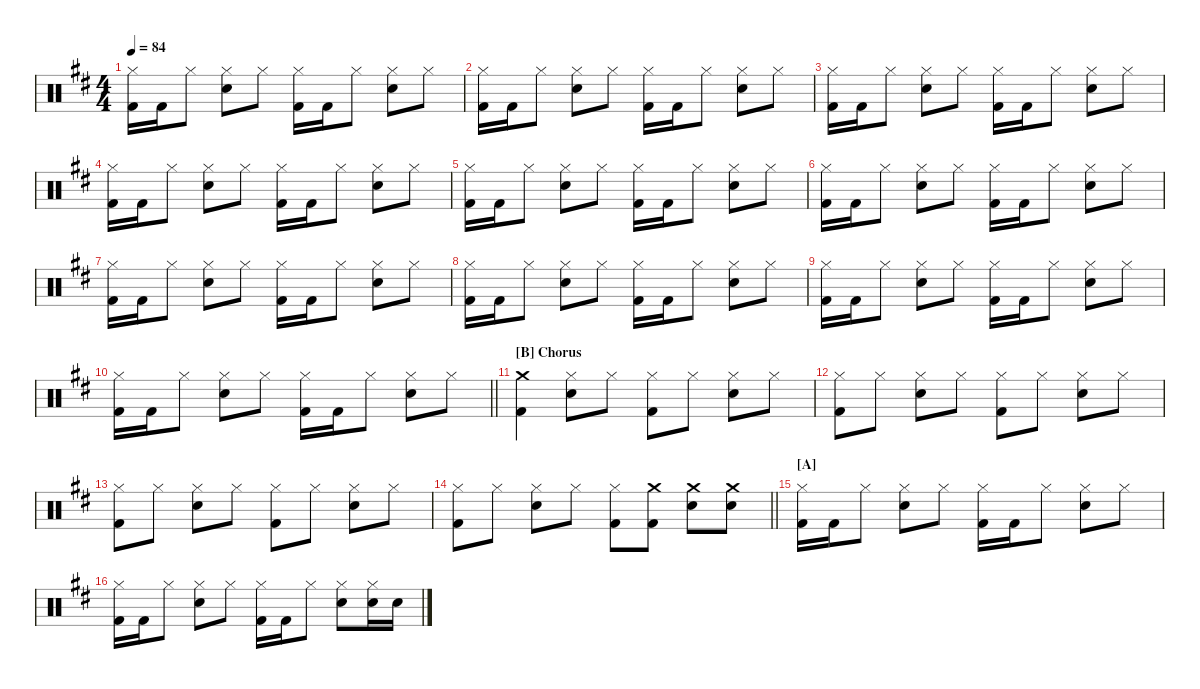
\hideDynamics
\bracketExtendMode nobrackets
\singleTrackTrackNamePolicy hidden
\multiTrackTrackNamePolicy hidden
\otherSystemsTrackNameOrientation horizontal
\track ("Drumkit" "Drums") {instrument percussion}
\staff {score}
\articulation defaults
\ts (4 4)
\tempo 84
\clef neutral
\ks d
("Kick (hit) 2"{acc forcenatural} "Hi-Hat (closed)"{acc forcenatural}).16{dy f beam Down} "Kick (hit) 2"{acc forcenatural}.16{beam Down} "Hi-Hat (closed)"{acc forcenatural}.8{beam Down} ("Snare (hit) 2"{acc forcenatural} "Hi-Hat (closed)"{acc forcenatural}).8{beam Down} "Hi-Hat (closed)"{acc forcenatural}.8{beam Down} ("Kick (hit) 2"{acc forcenatural} "Hi-Hat (closed)"{acc forcenatural}).16{beam Down} "Kick (hit) 2"{acc forcenatural}.16{beam Down} "Hi-Hat (closed)"{acc forcenatural}.8{beam Down} ("Snare (hit) 2"{acc forcenatural} "Hi-Hat (closed)"{acc forcenatural}).8{beam Down} "Hi-Hat (closed)"{acc forcenatural}.8{beam Down} |
("Kick (hit) 2"{acc forcenatural} "Hi-Hat (closed)"{acc forcenatural}).16{beam Down} "Kick (hit) 2"{acc forcenatural}.16{beam Down} "Hi-Hat (closed)"{acc forcenatural}.8{beam Down} ("Snare (hit) 2"{acc forcenatural} "Hi-Hat (closed)"{acc forcenatural}).8{beam Down} "Hi-Hat (closed)"{acc forcenatural}.8{beam Down} ("Kick (hit) 2"{acc forcenatural} "Hi-Hat (closed)"{acc forcenatural}).16{beam Down} "Kick (hit) 2"{acc forcenatural}.16{beam Down} "Hi-Hat (closed)"{acc forcenatural}.8{beam Down} ("Snare (hit) 2"{acc forcenatural} "Hi-Hat (closed)"{acc forcenatural}).8{beam Down} "Hi-Hat (closed)"{acc forcenatural}.8{beam Down} |
("Kick (hit) 2"{acc forcenatural} "Hi-Hat (closed)"{acc forcenatural}).16{beam Down} "Kick (hit) 2"{acc forcenatural}.16{beam Down} "Hi-Hat (closed)"{acc forcenatural}.8{beam Down} ("Snare (hit) 2"{acc forcenatural} "Hi-Hat (closed)"{acc forcenatural}).8{beam Down} "Hi-Hat (closed)"{acc forcenatural}.8{beam Down} ("Kick (hit) 2"{acc forcenatural} "Hi-Hat (closed)"{acc forcenatural}).16{beam Down} "Kick (hit) 2"{acc forcenatural}.16{beam Down} "Hi-Hat (closed)"{acc forcenatural}.8{beam Down} ("Snare (hit) 2"{acc forcenatural} "Hi-Hat (closed)"{acc forcenatural}).8{beam Down} "Hi-Hat (closed)"{acc forcenatural}.8{beam Down} |
("Kick (hit) 2"{acc forcenatural} "Hi-Hat (closed)"{acc forcenatural}).16{beam Down} "Kick (hit) 2"{acc forcenatural}.16{beam Down} "Hi-Hat (closed)"{acc forcenatural}.8{beam Down} ("Snare (hit) 2"{acc forcenatural} "Hi-Hat (closed)"{acc forcenatural}).8{beam Down} "Hi-Hat (closed)"{acc forcenatural}.8{beam Down} ("Kick (hit) 2"{acc forcenatural} "Hi-Hat (closed)"{acc forcenatural}).16{beam Down} "Kick (hit) 2"{acc forcenatural}.16{beam Down} "Hi-Hat (closed)"{acc forcenatural}.8{beam Down} ("Snare (hit) 2"{acc forcenatural} "Hi-Hat (closed)"{acc forcenatural}).8{beam Down} "Hi-Hat (closed)"{acc forcenatural}.8{beam Down} |
("Kick (hit) 2"{acc forcenatural} "Hi-Hat (closed)"{acc forcenatural}).16{beam Down} "Kick (hit) 2"{acc forcenatural}.16{beam Down} "Hi-Hat (closed)"{acc forcenatural}.8{beam Down} ("Snare (hit) 2"{acc forcenatural} "Hi-Hat (closed)"{acc forcenatural}).8{beam Down} "Hi-Hat (closed)"{acc forcenatural}.8{beam Down} ("Kick (hit) 2"{acc forcenatural} "Hi-Hat (closed)"{acc forcenatural}).16{beam Down} "Kick (hit) 2"{acc forcenatural}.16{beam Down} "Hi-Hat (closed)"{acc forcenatural}.8{beam Down} ("Snare (hit) 2"{acc forcenatural} "Hi-Hat (closed)"{acc forcenatural}).8{beam Down} "Hi-Hat (closed)"{acc forcenatural}.8{beam Down} |
("Kick (hit) 2"{acc forcenatural} "Hi-Hat (closed)"{acc forcenatural}).16{beam Down} "Kick (hit) 2"{acc forcenatural}.16{beam Down} "Hi-Hat (closed)"{acc forcenatural}.8{beam Down} ("Snare (hit) 2"{acc forcenatural} "Hi-Hat (closed)"{acc forcenatural}).8{beam Down} "Hi-Hat (closed)"{acc forcenatural}.8{beam Down} ("Kick (hit) 2"{acc forcenatural} "Hi-Hat (closed)"{acc forcenatural}).16{beam Down} "Kick (hit) 2"{acc forcenatural}.16{beam Down} "Hi-Hat (closed)"{acc forcenatural}.8{beam Down} ("Snare (hit) 2"{acc forcenatural} "Hi-Hat (closed)"{acc forcenatural}).8{beam Down} "Hi-Hat (closed)"{acc forcenatural}.8{beam Down} |
("Kick (hit) 2"{acc forcenatural} "Hi-Hat (closed)"{acc forcenatural}).16{beam Down} "Kick (hit) 2"{acc forcenatural}.16{beam Down} "Hi-Hat (closed)"{acc forcenatural}.8{beam Down} ("Snare (hit) 2"{acc forcenatural} "Hi-Hat (closed)"{acc forcenatural}).8{beam Down} "Hi-Hat (closed)"{acc forcenatural}.8{beam Down} ("Kick (hit) 2"{acc forcenatural} "Hi-Hat (closed)"{acc forcenatural}).16{beam Down} "Kick (hit) 2"{acc forcenatural}.16{beam Down} "Hi-Hat (closed)"{acc forcenatural}.8{beam Down} ("Snare (hit) 2"{acc forcenatural} "Hi-Hat (closed)"{acc forcenatural}).8{beam Down} "Hi-Hat (closed)"{acc forcenatural}.8{beam Down} |
("Kick (hit) 2"{acc forcenatural} "Hi-Hat (closed)"{acc forcenatural}).16{beam Down} "Kick (hit) 2"{acc forcenatural}.16{beam Down} "Hi-Hat (closed)"{acc forcenatural}.8{beam Down} ("Snare (hit) 2"{acc forcenatural} "Hi-Hat (closed)"{acc forcenatural}).8{beam Down} "Hi-Hat (closed)"{acc forcenatural}.8{beam Down} ("Kick (hit) 2"{acc forcenatural} "Hi-Hat (closed)"{acc forcenatural}).16{beam Down} "Kick (hit) 2"{acc forcenatural}.16{beam Down} "Hi-Hat (closed)"{acc forcenatural}.8{beam Down} ("Snare (hit) 2"{acc forcenatural} "Hi-Hat (closed)"{acc forcenatural}).8{beam Down} "Hi-Hat (closed)"{acc forcenatural}.8{beam Down} |
("Kick (hit) 2"{acc forcenatural} "Hi-Hat (closed)"{acc forcenatural}).16{beam Down} "Kick (hit) 2"{acc forcenatural}.16{beam Down} "Hi-Hat (closed)"{acc forcenatural}.8{beam Down} ("Snare (hit) 2"{acc forcenatural} "Hi-Hat (closed)"{acc forcenatural}).8{beam Down} "Hi-Hat (closed)"{acc forcenatural}.8{beam Down} ("Kick (hit) 2"{acc forcenatural} "Hi-Hat (closed)"{acc forcenatural}).16{beam Down} "Kick (hit) 2"{acc forcenatural}.16{beam Down} "Hi-Hat (closed)"{acc forcenatural}.8{beam Down} ("Snare (hit) 2"{acc forcenatural} "Hi-Hat (closed)"{acc forcenatural}).8{beam Down} "Hi-Hat (closed)"{acc forcenatural}.8{beam Down} |
\barLineRight lightlight
("Kick (hit) 2"{acc forcenatural} "Hi-Hat (closed)"{acc forcenatural}).16{beam Down} "Kick (hit) 2"{acc forcenatural}.16{beam Down} "Hi-Hat (closed)"{acc forcenatural}.8{beam Down} ("Snare (hit) 2"{acc forcenatural} "Hi-Hat (closed)"{acc forcenatural}).8{beam Down} "Hi-Hat (closed)"{acc forcenatural}.8{beam Down} ("Kick (hit) 2"{acc forcenatural} "Hi-Hat (closed)"{acc forcenatural}).16{beam Down} "Kick (hit) 2"{acc forcenatural}.16{beam Down} "Hi-Hat (closed)"{acc forcenatural}.8{beam Down} ("Snare (hit) 2"{acc forcenatural} "Hi-Hat (closed)"{acc forcenatural}).8{beam Down} "Hi-Hat (closed)"{acc forcenatural}.8{beam Down} |
\section ("B" "Chorus")
("Kick (hit) 2"{acc forcenatural} "Crash medium (hit)"{acc forcenatural}).4{beam Down} ("Snare (hit) 2"{acc forcenatural} "Hi-Hat (closed)"{acc forcenatural}).8{beam Down} "Hi-Hat (closed)"{acc forcenatural}.8{beam Down} ("Kick (hit) 2"{acc forcenatural} "Hi-Hat (closed)"{acc forcenatural}).8{beam Down} "Hi-Hat (closed)"{acc forcenatural}.8{beam Down} ("Snare (hit) 2"{acc forcenatural} "Hi-Hat (closed)"{acc forcenatural}).8{beam Down} "Hi-Hat (closed)"{acc forcenatural}.8{beam Down} |
("Kick (hit) 2"{acc forcenatural} "Hi-Hat (closed)"{acc forcenatural}).8{beam Down} "Hi-Hat (closed)"{acc forcenatural}.8{beam Down} ("Snare (hit) 2"{acc forcenatural} "Hi-Hat (closed)"{acc forcenatural}).8{beam Down} "Hi-Hat (closed)"{acc forcenatural}.8{beam Down} ("Kick (hit) 2"{acc forcenatural} "Hi-Hat (closed)"{acc forcenatural}).8{beam Down} "Hi-Hat (closed)"{acc forcenatural}.8{beam Down} ("Snare (hit) 2"{acc forcenatural} "Hi-Hat (closed)"{acc forcenatural}).8{beam Down} "Hi-Hat (closed)"{acc forcenatural}.8{beam Down} |
("Kick (hit) 2"{acc forcenatural} "Hi-Hat (closed)"{acc forcenatural}).8{beam Down} "Hi-Hat (closed)"{acc forcenatural}.8{beam Down} ("Snare (hit) 2"{acc forcenatural} "Hi-Hat (closed)"{acc forcenatural}).8{beam Down} "Hi-Hat (closed)"{acc forcenatural}.8{beam Down} ("Kick (hit) 2"{acc forcenatural} "Hi-Hat (closed)"{acc forcenatural}).8{beam Down} "Hi-Hat (closed)"{acc forcenatural}.8{beam Down} ("Snare (hit) 2"{acc forcenatural} "Hi-Hat (closed)"{acc forcenatural}).8{beam Down} "Hi-Hat (closed)"{acc forcenatural}.8{beam Down} |
\barLineRight lightlight
("Kick (hit) 2"{acc forcenatural} "Hi-Hat (closed)"{acc forcenatural}).8{beam Down} "Hi-Hat (closed)"{acc forcenatural}.8{beam Down} ("Snare (hit) 2"{acc forcenatural} "Hi-Hat (closed)"{acc forcenatural}).8{beam Down} "Hi-Hat (closed)"{acc forcenatural}.8{beam Down} ("Kick (hit) 2"{acc forcenatural} "Hi-Hat (closed)"{acc forcenatural}).8{beam Down} ("Kick (hit) 2"{acc forcenatural} "Crash medium (hit)"{acc forcenatural}).8{beam Down} ("Snare (hit) 2"{acc forcenatural} "Crash medium (hit)"{acc forcenatural}).8{beam Down} ("Snare (hit) 2"{acc forcenatural} "Crash medium (hit)"{acc forcenatural}).8{beam Down} |
\section ("A" "")
("Kick (hit) 2"{acc forcenatural} "Hi-Hat (closed)"{acc forcenatural}).16{beam Down} "Kick (hit) 2"{acc forcenatural}.16{beam Down} "Hi-Hat (closed)"{acc forcenatural}.8{beam Down} ("Snare (hit) 2"{acc forcenatural} "Hi-Hat (closed)"{acc forcenatural}).8{beam Down} "Hi-Hat (closed)"{acc forcenatural}.8{beam Down} ("Kick (hit) 2"{acc forcenatural} "Hi-Hat (closed)"{acc forcenatural}).16{beam Down} "Kick (hit) 2"{acc forcenatural}.16{beam Down} "Hi-Hat (closed)"{acc forcenatural}.8{beam Down} ("Snare (hit) 2"{acc forcenatural} "Hi-Hat (closed)"{acc forcenatural}).8{beam Down} "Hi-Hat (closed)"{acc forcenatural}.8{beam Down} |
("Kick (hit) 2"{acc forcenatural} "Hi-Hat (closed)"{acc forcenatural}).16{beam Down} "Kick (hit) 2"{acc forcenatural}.16{beam Down} "Hi-Hat (closed)"{acc forcenatural}.8{beam Down} ("Snare (hit) 2"{acc forcenatural} "Hi-Hat (closed)"{acc forcenatural}).8{beam Down} "Hi-Hat (closed)"{acc forcenatural}.8{beam Down} ("Kick (hit) 2"{acc forcenatural} "Hi-Hat (closed)"{acc forcenatural}).16{beam Down} "Kick (hit) 2"{acc forcenatural}.16{beam Down} "Hi-Hat (closed)"{acc forcenatural}.8{beam Down} ("Snare (hit) 2"{acc forcenatural} "Hi-Hat (closed)"{acc forcenatural}).8{beam Down} ("Snare (hit) 2"{acc forcenatural} "Hi-Hat (closed)"{acc forcenatural}).16{beam Down} "Snare (hit) 2"{acc forcenatural}.16{beam Down}
